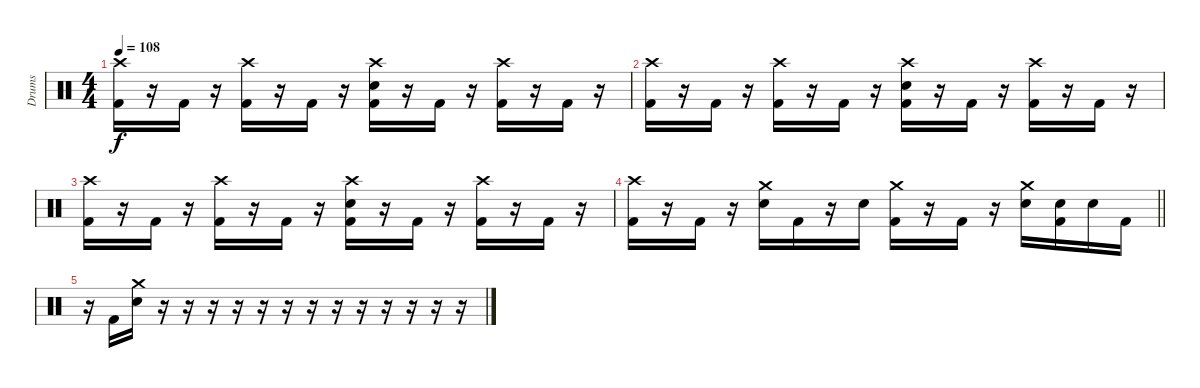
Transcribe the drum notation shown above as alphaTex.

\track ("Drums" "Drums") {instrument percussion}
\staff {score}
\articulation defaults
\ts (4 4)
\tempo 108
\clef neutral
\ks c
("Crash high (hit)" "Kick (hit) 2").16{dy f} r.16 "Kick (hit) 2".16 r.16 ("Crash high (hit)" "Kick (hit) 2").16 r.16 "Kick (hit) 2".16 r.16 ("Crash high (hit)" "Electric Snare (hit)" "Kick (hit) 2").16 r.16 "Kick (hit) 2".16 r.16 ("Crash high (hit)" "Kick (hit) 2").16 r.16 "Kick (hit) 2".16 r.16 |
("Crash high (hit)" "Kick (hit) 2").16 r.16 "Kick (hit) 2".16 r.16 ("Crash high (hit)" "Kick (hit) 2").16 r.16 "Kick (hit) 2".16 r.16 ("Crash high (hit)" "Electric Snare (hit)" "Kick (hit) 2").16 r.16 "Kick (hit) 2".16 r.16 ("Crash high (hit)" "Kick (hit) 2").16 r.16 "Kick (hit) 2".16 r.16 |
("Crash high (hit)" "Kick (hit) 2").16 r.16 "Kick (hit) 2".16 r.16 ("Crash high (hit)" "Kick (hit) 2").16 r.16 "Kick (hit) 2".16 r.16 ("Crash high (hit)" "Electric Snare (hit)" "Kick (hit) 2").16 r.16 "Kick (hit) 2".16 r.16 ("Crash high (hit)" "Kick (hit) 2").16 r.16 "Kick (hit) 2".16 r.16 |
\barLineRight lightlight
("Crash high (hit)" "Kick (hit) 2").16 r.16 "Kick (hit) 2".16 r.16 ("Crash medium (hit)" "Electric Snare (hit)").16 "Kick (hit) 2".16 r.16 "Electric Snare (hit)".16 ("Crash medium (hit)" "Kick (hit) 2").16 r.16 "Kick (hit) 2".16 r.16 ("Crash medium (hit)" "Electric Snare (hit)").16 ("Electric Snare (hit)" "Kick (hit) 2").16 "Electric Snare (hit)".16 "Kick (hit) 2".16 |
r.16 "Kick (hit) 2".16 ("Crash medium (hit)" "Electric Snare (hit)").16 r.16 r.16 r.16 r.16 r.16 r.16 r.16 r.16 r.16 r.16 r.16 r.16 r.16
